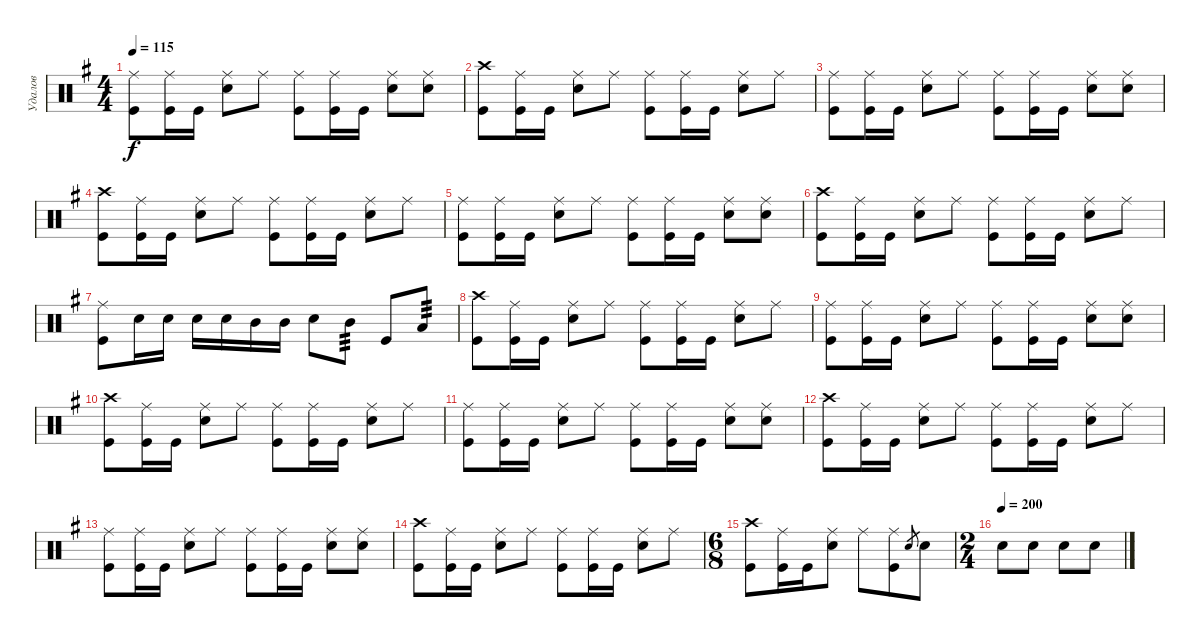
\track ("Удалов" "Удалов") {instrument percussion}
\staff {score}
\articulation defaults
\ts (4 4)
\tempo 115
\clef neutral
\ks g
("Ride (middle)" "Kick (hit)").8{dy f} ("Ride (middle)" "Kick (hit)").16 "Kick (hit)".16 ("Ride (middle)" "Electric Snare (hit)").8 "Ride (middle)".8 ("Ride (middle)" "Kick (hit)").8 ("Ride (middle)" "Kick (hit)").16 "Kick (hit)".16 ("Ride (middle)" "Electric Snare (hit)").8 ("Ride (middle)" "Electric Snare (hit)").8 |
("Crash high (hit)" "Kick (hit)").8 ("Ride (middle)" "Kick (hit)").16 "Kick (hit)".16 ("Ride (middle)" "Electric Snare (hit)").8 "Ride (middle)".8 ("Ride (middle)" "Kick (hit)").8 ("Ride (middle)" "Kick (hit)").16 "Kick (hit)".16 ("Ride (middle)" "Electric Snare (hit)").8 "Ride (middle)".8 |
("Ride (middle)" "Kick (hit)").8 ("Ride (middle)" "Kick (hit)").16 "Kick (hit)".16 ("Ride (middle)" "Electric Snare (hit)").8 "Ride (middle)".8 ("Ride (middle)" "Kick (hit)").8 ("Ride (middle)" "Kick (hit)").16 "Kick (hit)".16 ("Ride (middle)" "Electric Snare (hit)").8 ("Ride (middle)" "Electric Snare (hit)").8 |
("Crash high (hit)" "Kick (hit)").8 ("Ride (middle)" "Kick (hit)").16 "Kick (hit)".16 ("Ride (middle)" "Electric Snare (hit)").8 "Ride (middle)".8 ("Ride (middle)" "Kick (hit)").8 ("Ride (middle)" "Kick (hit)").16 "Kick (hit)".16 ("Ride (middle)" "Electric Snare (hit)").8 "Ride (middle)".8 |
("Ride (middle)" "Kick (hit)").8 ("Ride (middle)" "Kick (hit)").16 "Kick (hit)".16 ("Ride (middle)" "Electric Snare (hit)").8 "Ride (middle)".8 ("Ride (middle)" "Kick (hit)").8 ("Ride (middle)" "Kick (hit)").16 "Kick (hit)".16 ("Ride (middle)" "Electric Snare (hit)").8 ("Ride (middle)" "Electric Snare (hit)").8 |
("Crash high (hit)" "Kick (hit)").8 ("Ride (middle)" "Kick (hit)").16 "Kick (hit)".16 ("Ride (middle)" "Electric Snare (hit)").8 "Ride (middle)".8 ("Ride (middle)" "Kick (hit)").8 ("Ride (middle)" "Kick (hit)").16 "Kick (hit)".16 ("Ride (middle)" "Electric Snare (hit)").8 "Ride (middle)".8 |
("Ride (middle)" "Kick (hit)").8 "Electric Snare (hit)".16 "Electric Snare (hit)".16 "Electric Snare (hit)".16 "Electric Snare (hit)".16 "Mid Tom (hit)".16 "Mid Tom (hit)".16 "Electric Snare (hit)".8 "Mid Tom (hit)".8{tp 3} "Kick (hit)".8 "Low Tom (hit)".8{tp 3} |
("Crash high (hit)" "Kick (hit)").8 ("Ride (middle)" "Kick (hit)").16 "Kick (hit)".16 ("Ride (middle)" "Electric Snare (hit)").8 "Ride (middle)".8 ("Ride (middle)" "Kick (hit)").8 ("Ride (middle)" "Kick (hit)").16 "Kick (hit)".16 ("Ride (middle)" "Electric Snare (hit)").8 "Ride (middle)".8 |
("Ride (middle)" "Kick (hit)").8 ("Ride (middle)" "Kick (hit)").16 "Kick (hit)".16 ("Ride (middle)" "Electric Snare (hit)").8 "Ride (middle)".8 ("Ride (middle)" "Kick (hit)").8 ("Ride (middle)" "Kick (hit)").16 "Kick (hit)".16 ("Ride (middle)" "Electric Snare (hit)").8 ("Ride (middle)" "Electric Snare (hit)").8 |
("Crash high (hit)" "Kick (hit)").8 ("Ride (middle)" "Kick (hit)").16 "Kick (hit)".16 ("Ride (middle)" "Electric Snare (hit)").8 "Ride (middle)".8 ("Ride (middle)" "Kick (hit)").8 ("Ride (middle)" "Kick (hit)").16 "Kick (hit)".16 ("Ride (middle)" "Electric Snare (hit)").8 "Ride (middle)".8 |
("Ride (middle)" "Kick (hit)").8 ("Ride (middle)" "Kick (hit)").16 "Kick (hit)".16 ("Ride (middle)" "Electric Snare (hit)").8 "Ride (middle)".8 ("Ride (middle)" "Kick (hit)").8 ("Ride (middle)" "Kick (hit)").16 "Kick (hit)".16 ("Ride (middle)" "Electric Snare (hit)").8 ("Ride (middle)" "Electric Snare (hit)").8 |
("Crash high (hit)" "Kick (hit)").8 ("Ride (middle)" "Kick (hit)").16 "Kick (hit)".16 ("Ride (middle)" "Electric Snare (hit)").8 "Ride (middle)".8 ("Ride (middle)" "Kick (hit)").8 ("Ride (middle)" "Kick (hit)").16 "Kick (hit)".16 ("Ride (middle)" "Electric Snare (hit)").8 "Ride (middle)".8 |
("Ride (middle)" "Kick (hit)").8 ("Ride (middle)" "Kick (hit)").16 "Kick (hit)".16 ("Ride (middle)" "Electric Snare (hit)").8 "Ride (middle)".8 ("Ride (middle)" "Kick (hit)").8 ("Ride (middle)" "Kick (hit)").16 "Kick (hit)".16 ("Ride (middle)" "Electric Snare (hit)").8 ("Ride (middle)" "Electric Snare (hit)").8 |
("Crash high (hit)" "Kick (hit)").8 ("Ride (middle)" "Kick (hit)").16 "Kick (hit)".16 ("Ride (middle)" "Electric Snare (hit)").8 "Ride (middle)".8 ("Ride (middle)" "Kick (hit)").8 ("Ride (middle)" "Kick (hit)").16 "Kick (hit)".16 ("Ride (middle)" "Electric Snare (hit)").8 "Ride (middle)".8 |
\ts (6 8)
("Crash high (hit)" "Kick (hit)").8 ("Ride (middle)" "Kick (hit)").16 "Kick (hit)".16 ("Ride (middle)" "Electric Snare (hit)").8 "Ride (middle)".8 ("Ride (middle)" "Kick (hit)").8 "Electric Snare (hit)".8{gr} "Electric Snare (hit)".8 |
\ts (2 4)
\tempo (200)
"Electric Snare (hit)".8 "Electric Snare (hit)".8 "Electric Snare (hit)".8 "Electric Snare (hit)".8
